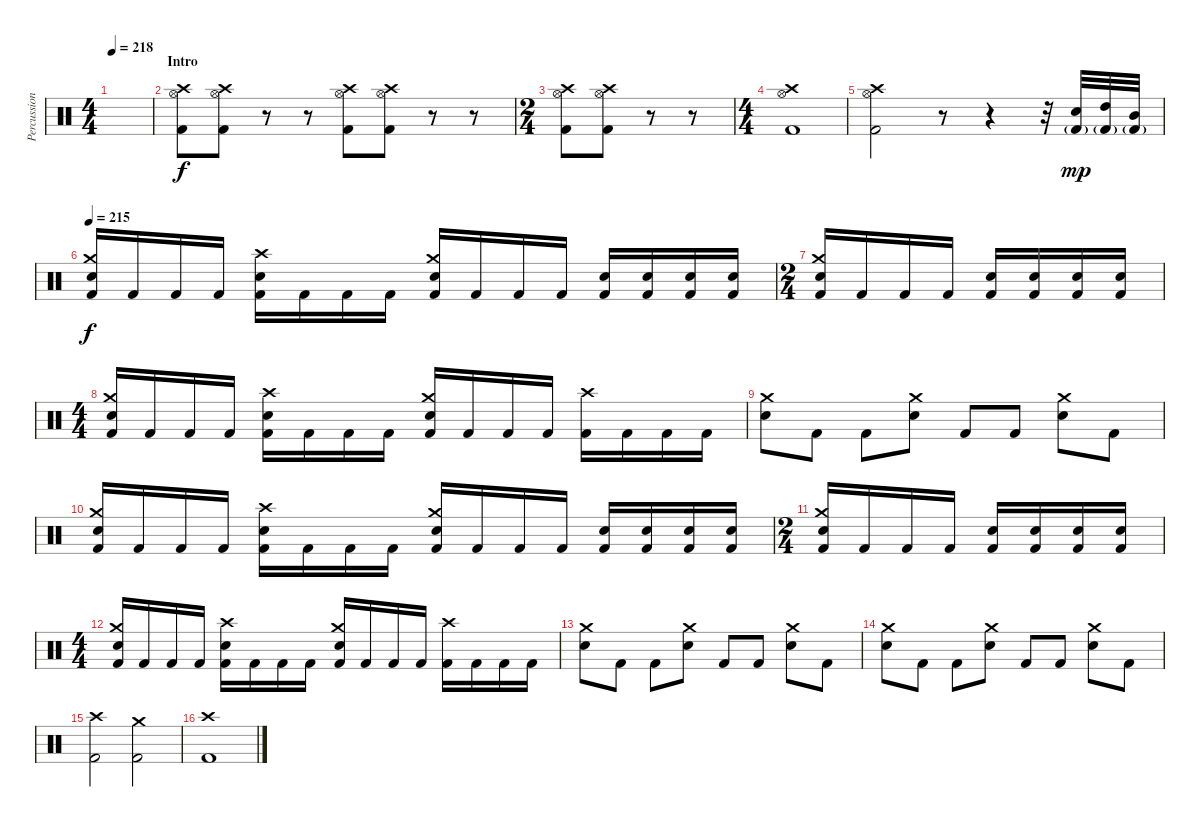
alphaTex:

\track ("Percussions" "Percussion") {instrument percussion}
\staff {score}
\articulation defaults
\ts (4 4)
\tempo 218
\tempo 110
\tempo 218
\clef neutral
\ks c
|
\section ("" "Intro")
("Crash high (hit)" "Hi-Hat (open)" "Kick (hit) 2").8 ("Crash high (hit)" "Hi-Hat (open)" "Kick (hit) 2").8 r.8 r.8 ("Crash high (hit)" "Hi-Hat (open)" "Kick (hit) 2").8 ("Crash high (hit)" "Hi-Hat (open)" "Kick (hit) 2").8 r.8 r.8 |
\ts (2 4)
("Crash high (hit)" "Hi-Hat (open)" "Kick (hit) 2").8 ("Crash high (hit)" "Hi-Hat (open)" "Kick (hit) 2").8 r.8 r.8 |
\ts (4 4)
("Crash high (hit)" "Hi-Hat (open)" "Kick (hit) 2").1 |
("Crash high (hit)" "Hi-Hat (open)" "Kick (hit) 2").2 r.8 r.4 r.32 ("Electric Snare (hit)" "Kick (hit) 2"{g}).32{dy mp} ("High Tom (hit)" "Kick (hit) 2"{g}).32 ("Mid Tom (hit)" "Kick (hit) 2"{g}).32 |
\tempo 215
("Crash medium (hit)" "Snare (hit) 2" "Kick (hit) 2").16{dy f} "Kick (hit) 2".16 "Kick (hit) 2".16 "Kick (hit) 2".16 ("Crash high (hit)" "Snare (hit) 2" "Kick (hit) 2").16 "Kick (hit) 2".16 "Kick (hit) 2".16 "Kick (hit) 2".16 ("Crash medium (hit)" "Snare (hit) 2" "Kick (hit) 2").16 "Kick (hit) 2".16 "Kick (hit) 2".16 "Kick (hit) 2".16 ("Snare (hit) 2" "Kick (hit) 2").16 ("Snare (hit) 2" "Kick (hit) 2").16 ("Snare (hit) 2" "Kick (hit) 2").16 ("Snare (hit) 2" "Kick (hit) 2").16 |
\ts (2 4)
("Crash medium (hit)" "Snare (hit) 2" "Kick (hit) 2").16 "Kick (hit) 2".16 "Kick (hit) 2".16 "Kick (hit) 2".16 ("Snare (hit) 2" "Kick (hit) 2").16 ("Snare (hit) 2" "Kick (hit) 2").16 ("Snare (hit) 2" "Kick (hit) 2").16 ("Snare (hit) 2" "Kick (hit) 2").16 |
\ts (4 4)
("Crash medium (hit)" "Snare (hit) 2" "Kick (hit) 2").16 "Kick (hit) 2".16 "Kick (hit) 2".16 "Kick (hit) 2".16 ("Crash high (hit)" "Snare (hit) 2" "Kick (hit) 2").16 "Kick (hit) 2".16 "Kick (hit) 2".16 "Kick (hit) 2".16 ("Crash medium (hit)" "Snare (hit) 2" "Kick (hit) 2").16 "Kick (hit) 2".16 "Kick (hit) 2".16 "Kick (hit) 2".16 ("Crash high (hit)" "Kick (hit) 2").16 "Kick (hit) 2".16 "Kick (hit) 2".16 "Kick (hit) 2".16 |
("Crash medium (hit)" "Snare (hit) 2").8 "Kick (hit) 2".8 "Kick (hit) 2".8 ("Crash medium (hit)" "Snare (hit) 2").8 "Kick (hit) 2".8 "Kick (hit) 2".8 ("Crash medium (hit)" "Snare (hit) 2").8 "Kick (hit) 2".8 |
("Crash medium (hit)" "Snare (hit) 2" "Kick (hit) 2").16 "Kick (hit) 2".16 "Kick (hit) 2".16 "Kick (hit) 2".16 ("Crash high (hit)" "Snare (hit) 2" "Kick (hit) 2").16 "Kick (hit) 2".16 "Kick (hit) 2".16 "Kick (hit) 2".16 ("Crash medium (hit)" "Snare (hit) 2" "Kick (hit) 2").16 "Kick (hit) 2".16 "Kick (hit) 2".16 "Kick (hit) 2".16 ("Snare (hit) 2" "Kick (hit) 2").16 ("Snare (hit) 2" "Kick (hit) 2").16 ("Snare (hit) 2" "Kick (hit) 2").16 ("Snare (hit) 2" "Kick (hit) 2").16 |
\ts (2 4)
("Crash medium (hit)" "Snare (hit) 2" "Kick (hit) 2").16 "Kick (hit) 2".16 "Kick (hit) 2".16 "Kick (hit) 2".16 ("Snare (hit) 2" "Kick (hit) 2").16 ("Snare (hit) 2" "Kick (hit) 2").16 ("Snare (hit) 2" "Kick (hit) 2").16 ("Snare (hit) 2" "Kick (hit) 2").16 |
\ts (4 4)
("Crash medium (hit)" "Snare (hit) 2" "Kick (hit) 2").16 "Kick (hit) 2".16 "Kick (hit) 2".16 "Kick (hit) 2".16 ("Crash high (hit)" "Snare (hit) 2" "Kick (hit) 2").16 "Kick (hit) 2".16 "Kick (hit) 2".16 "Kick (hit) 2".16 ("Crash medium (hit)" "Snare (hit) 2" "Kick (hit) 2").16 "Kick (hit) 2".16 "Kick (hit) 2".16 "Kick (hit) 2".16 ("Crash high (hit)" "Kick (hit) 2").16 "Kick (hit) 2".16 "Kick (hit) 2".16 "Kick (hit) 2".16 |
("Crash medium (hit)" "Snare (hit) 2").8 "Kick (hit) 2".8 "Kick (hit) 2".8 ("Crash medium (hit)" "Snare (hit) 2").8 "Kick (hit) 2".8 "Kick (hit) 2".8 ("Crash medium (hit)" "Snare (hit) 2").8 "Kick (hit) 2".8 |
("Crash medium (hit)" "Snare (hit) 2").8 "Kick (hit) 2".8 "Kick (hit) 2".8 ("Crash medium (hit)" "Snare (hit) 2").8 "Kick (hit) 2".8 "Kick (hit) 2".8 ("Crash medium (hit)" "Snare (hit) 2").8 "Kick (hit) 2".8 |
("Crash high (hit)" "Kick (hit) 2").2 ("Crash medium (hit)" "Kick (hit) 2").2 |
("Crash high (hit)" "Kick (hit) 2").1
